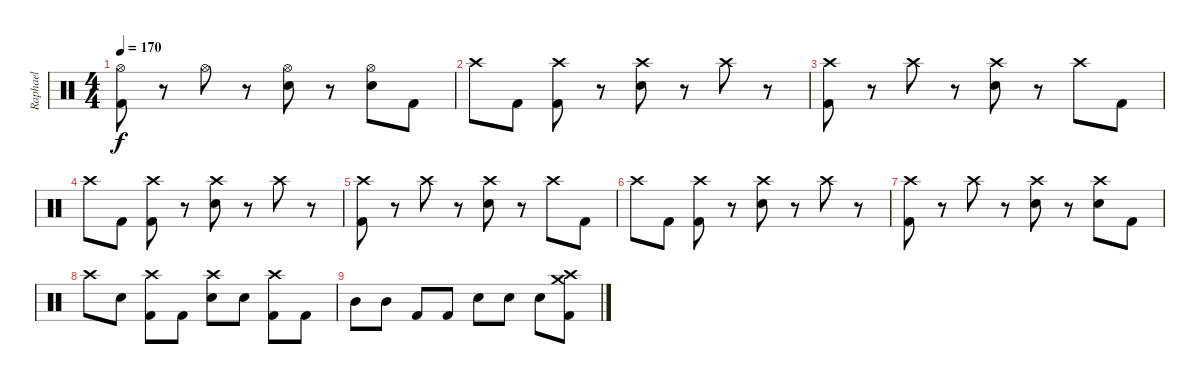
\track ("Raphael" "Raphael") {instrument percussion}
\staff {score}
\articulation defaults
\ts (4 4)
\tempo 170
\clef neutral
\ks c
("Kick (hit) 2" "Hi-Hat (open)").8{dy f} r.8 "Hi-Hat (open)".8 r.8 ("Snare (hit) 2" "Hi-Hat (open)").8 r.8 ("Snare (hit) 2" "Hi-Hat (open)").8 "Kick (hit) 2".8 |
"Crash high (hit)".8 "Kick (hit) 2".8 ("Kick (hit) 2" "Crash high (hit)").8 r.8 ("Snare (hit) 2" "Crash high (hit)").8 r.8 "Crash high (hit)".8 r.8 |
("Kick (hit) 2" "Crash high (hit)").8 r.8 "Crash high (hit)".8 r.8 ("Snare (hit) 2" "Crash high (hit)").8 r.8 "Crash high (hit)".8 "Kick (hit) 2".8 |
"Crash high (hit)".8 "Kick (hit) 2".8 ("Kick (hit) 2" "Crash high (hit)").8 r.8 ("Snare (hit) 2" "Crash high (hit)").8 r.8 "Crash high (hit)".8 r.8 |
("Kick (hit) 2" "Crash high (hit)").8 r.8 "Crash high (hit)".8 r.8 ("Snare (hit) 2" "Crash high (hit)").8 r.8 "Crash high (hit)".8 "Kick (hit) 2".8 |
"Crash high (hit)".8 "Kick (hit) 2".8 ("Kick (hit) 2" "Crash high (hit)").8 r.8 ("Snare (hit) 2" "Crash high (hit)").8 r.8 "Crash high (hit)".8 r.8 |
("Kick (hit) 2" "Crash high (hit)").8 r.8 "Crash high (hit)".8 r.8 ("Snare (hit) 2" "Crash high (hit)").8 r.8 ("Snare (hit) 2" "Crash high (hit)").8 "Kick (hit) 2".8 |
"Crash high (hit)".8 "Snare (hit) 2".8 ("Kick (hit) 2" "Crash high (hit)").8 "Kick (hit) 2".8 ("Snare (hit) 2" "Crash high (hit)").8 "Snare (hit) 2".8 ("Kick (hit) 2" "Crash high (hit)").8 "Kick (hit) 2".8 |
"Mid Tom (hit)".8 "Mid Tom (hit)".8 "Kick (hit) 2".8 "Kick (hit) 2".8 "Snare (hit) 2".8 "Snare (hit) 2".8 "Snare (hit) 2".8 ("Kick (hit) 2" "Crash medium (hit)" "Crash high (hit)").8
